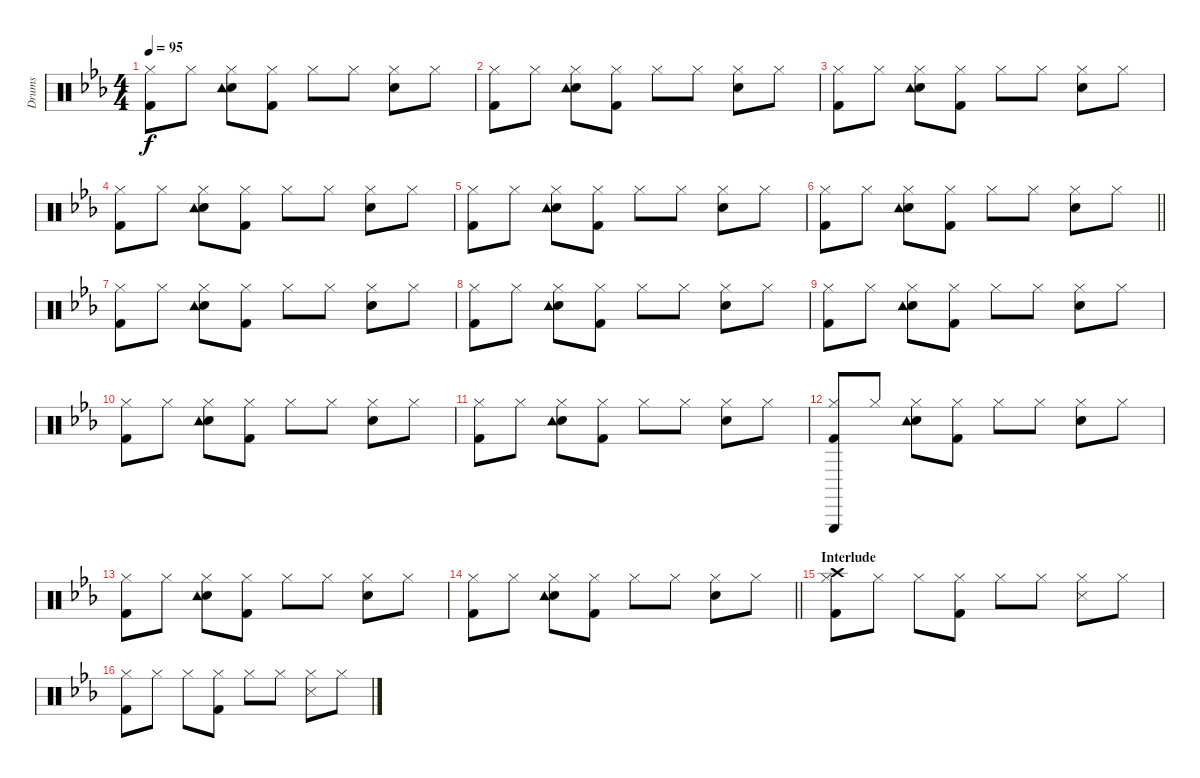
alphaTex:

\track ("Drums" "Drums") {instrument percussion}
\staff {score}
\articulation defaults
\ts (4 4)
\tempo 95
\clef neutral
\ks eb
("Hi-Hat (closed)" "Kick (hit) 2").8{dy f} "Hi-Hat (closed)".8 ("Hi-Hat (closed)" "Snare (hit) 2" "Tambourine (hit)").8 ("Hi-Hat (closed)" "Kick (hit) 2").8 "Hi-Hat (closed)".8 "Hi-Hat (closed)".8 ("Hi-Hat (closed)" "Snare (hit) 2").8 "Hi-Hat (closed)".8 |
("Hi-Hat (closed)" "Kick (hit) 2").8 "Hi-Hat (closed)".8 ("Hi-Hat (closed)" "Snare (hit) 2" "Tambourine (hit)").8 ("Hi-Hat (closed)" "Kick (hit) 2").8 "Hi-Hat (closed)".8 "Hi-Hat (closed)".8 ("Hi-Hat (closed)" "Snare (hit) 2").8 "Hi-Hat (closed)".8 |
("Hi-Hat (closed)" "Kick (hit) 2").8 "Hi-Hat (closed)".8 ("Hi-Hat (closed)" "Snare (hit) 2" "Tambourine (hit)").8 ("Hi-Hat (closed)" "Kick (hit) 2").8 "Hi-Hat (closed)".8 "Hi-Hat (closed)".8 ("Hi-Hat (closed)" "Snare (hit) 2").8 "Hi-Hat (closed)".8 |
("Hi-Hat (closed)" "Kick (hit) 2").8 "Hi-Hat (closed)".8 ("Hi-Hat (closed)" "Snare (hit) 2" "Tambourine (hit)").8 ("Hi-Hat (closed)" "Kick (hit) 2").8 "Hi-Hat (closed)".8 "Hi-Hat (closed)".8 ("Hi-Hat (closed)" "Snare (hit) 2").8 "Hi-Hat (closed)".8 |
("Hi-Hat (closed)" "Kick (hit) 2").8 "Hi-Hat (closed)".8 ("Hi-Hat (closed)" "Snare (hit) 2" "Tambourine (hit)").8 ("Hi-Hat (closed)" "Kick (hit) 2").8 "Hi-Hat (closed)".8 "Hi-Hat (closed)".8 ("Hi-Hat (closed)" "Snare (hit) 2").8 "Hi-Hat (closed)".8 |
\barLineRight lightlight
("Hi-Hat (closed)" "Kick (hit) 2").8 "Hi-Hat (closed)".8 ("Hi-Hat (closed)" "Snare (hit) 2" "Tambourine (hit)").8 ("Hi-Hat (closed)" "Kick (hit) 2").8 "Hi-Hat (closed)".8 "Hi-Hat (closed)".8 ("Hi-Hat (closed)" "Snare (hit) 2").8 "Hi-Hat (closed)".8 |
\section ("" "")
("Hi-Hat (closed)" "Kick (hit) 2").8 "Hi-Hat (closed)".8 ("Hi-Hat (closed)" "Snare (hit) 2" "Tambourine (hit)").8 ("Hi-Hat (closed)" "Kick (hit) 2").8 "Hi-Hat (closed)".8 "Hi-Hat (closed)".8 ("Hi-Hat (closed)" "Snare (hit) 2").8 "Hi-Hat (closed)".8 |
("Hi-Hat (closed)" "Kick (hit) 2").8 "Hi-Hat (closed)".8 ("Hi-Hat (closed)" "Snare (hit) 2" "Tambourine (hit)").8 ("Hi-Hat (closed)" "Kick (hit) 2").8 "Hi-Hat (closed)".8 "Hi-Hat (closed)".8 ("Hi-Hat (closed)" "Snare (hit) 2").8 "Hi-Hat (closed)".8 |
("Hi-Hat (closed)" "Kick (hit) 2").8 "Hi-Hat (closed)".8 ("Hi-Hat (closed)" "Snare (hit) 2" "Tambourine (hit)").8 ("Hi-Hat (closed)" "Kick (hit) 2").8 "Hi-Hat (closed)".8 "Hi-Hat (closed)".8 ("Hi-Hat (closed)" "Snare (hit) 2").8 "Hi-Hat (closed)".8 |
("Hi-Hat (closed)" "Kick (hit) 2").8 "Hi-Hat (closed)".8 ("Hi-Hat (closed)" "Snare (hit) 2" "Tambourine (hit)").8 ("Hi-Hat (closed)" "Kick (hit) 2").8 "Hi-Hat (closed)".8 "Hi-Hat (closed)".8 ("Hi-Hat (closed)" "Snare (hit) 2").8 "Hi-Hat (closed)".8 |
("Hi-Hat (closed)" "Kick (hit) 2").8 "Hi-Hat (closed)".8 ("Hi-Hat (closed)" "Snare (hit) 2" "Tambourine (hit)").8 ("Hi-Hat (closed)" "Kick (hit) 2").8 "Hi-Hat (closed)".8 "Hi-Hat (closed)".8 ("Hi-Hat (closed)" "Snare (hit) 2").8 "Hi-Hat (closed)".8 |
("Hi-Hat (closed)" "Triangle (hit)" "Kick (hit) 2").8 "Hi-Hat (closed)".8 ("Hi-Hat (closed)" "Snare (hit) 2" "Tambourine (hit)").8 ("Hi-Hat (closed)" "Kick (hit) 2").8 "Hi-Hat (closed)".8 "Hi-Hat (closed)".8 ("Hi-Hat (closed)" "Snare (hit) 2").8 "Hi-Hat (closed)".8 |
("Hi-Hat (closed)" "Kick (hit) 2").8 "Hi-Hat (closed)".8 ("Hi-Hat (closed)" "Snare (hit) 2" "Tambourine (hit)").8 ("Hi-Hat (closed)" "Kick (hit) 2").8 "Hi-Hat (closed)".8 "Hi-Hat (closed)".8 ("Hi-Hat (closed)" "Snare (hit) 2").8 "Hi-Hat (closed)".8 |
\barLineRight lightlight
("Hi-Hat (closed)" "Kick (hit) 2").8 "Hi-Hat (closed)".8 ("Hi-Hat (closed)" "Snare (hit) 2" "Tambourine (hit)").8 ("Hi-Hat (closed)" "Kick (hit) 2").8 "Hi-Hat (closed)".8 "Hi-Hat (closed)".8 ("Hi-Hat (closed)" "Snare (hit) 2").8 "Hi-Hat (closed)".8 |
\section ("" "Interlude")
("Hi-Hat (closed)" "Crash high (hit)" "Kick (hit) 2").8 "Hi-Hat (closed)".8 "Hi-Hat (closed)".8 ("Hi-Hat (closed)" "Kick (hit) 2").8 "Hi-Hat (closed)".8 "Hi-Hat (closed)".8 ("Hi-Hat (closed)" "Snare (side stick) 3").8 "Hi-Hat (closed)".8 |
("Hi-Hat (closed)" "Kick (hit) 2").8 "Hi-Hat (closed)".8 "Hi-Hat (closed)".8 ("Hi-Hat (closed)" "Kick (hit) 2").8 "Hi-Hat (closed)".8 "Hi-Hat (closed)".8 ("Hi-Hat (closed)" "Snare (side stick) 3").8 "Hi-Hat (closed)".8
